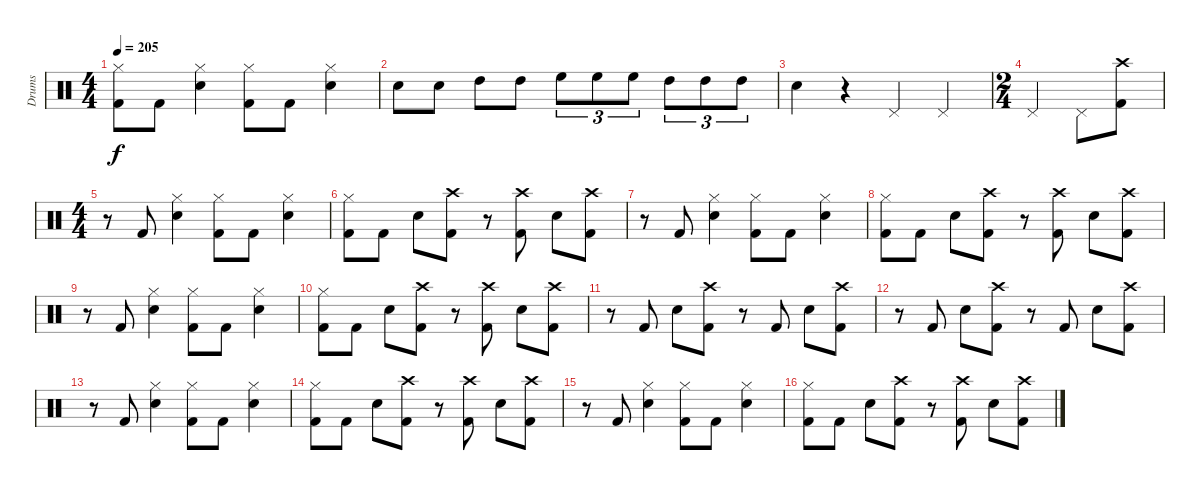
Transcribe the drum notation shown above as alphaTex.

\track ("Drums" "Drums") {instrument percussion}
\staff {score}
\articulation defaults
\ts (4 4)
\tempo 205
\clef neutral
\ks c
("Hi-Hat (closed)" "Kick (hit) 2").8{dy f} "Kick (hit) 2".8 ("Hi-Hat (closed)" "Snare (hit) 2").4 ("Hi-Hat (closed)" "Kick (hit) 2").8 "Kick (hit) 2".8 ("Hi-Hat (closed)" "Snare (hit) 2").4 |
"Snare (hit) 2".8 "Snare (hit) 2".8 "High Tom (hit)".8 "High Tom (hit)".8 "High Floor Tom (hit)".8{tu (3 2)} "High Floor Tom (hit)".8{tu (3 2)} "High Floor Tom (hit)".8{tu (3 2)} "High Tom (hit)".8{tu (3 2)} "High Tom (hit)".8{tu (3 2)} "High Tom (hit)".8{tu (3 2)} |
"Snare (hit) 2".4 r.4 "Pedal Hi-Hat (hit)".4 "Pedal Hi-Hat (hit)".4 |
\ts (2 4)
"Pedal Hi-Hat (hit)".4 "Pedal Hi-Hat (hit)".8 ("Kick (hit) 2" "Crash high (hit)").8 |
\ts (4 4)
r.8 "Kick (hit) 2".8 ("Snare (hit) 2" "Hi-Hat (closed)").4 ("Kick (hit) 2" "Hi-Hat (closed)").8 "Kick (hit) 2".8 ("Hi-Hat (closed)" "Snare (hit) 2").4 |
("Hi-Hat (closed)" "Kick (hit) 2").8 "Kick (hit) 2".8 "Snare (hit) 2".8 ("Kick (hit) 2" "Crash high (hit)").8 r.8 ("Kick (hit) 2" "Crash high (hit)").8 "Snare (hit) 2".8 ("Kick (hit) 2" "Crash high (hit)").8 |
r.8 "Kick (hit) 2".8 ("Snare (hit) 2" "Hi-Hat (closed)").4 ("Kick (hit) 2" "Hi-Hat (closed)").8 "Kick (hit) 2".8 ("Hi-Hat (closed)" "Snare (hit) 2").4 |
("Hi-Hat (closed)" "Kick (hit) 2").8 "Kick (hit) 2".8 "Snare (hit) 2".8 ("Kick (hit) 2" "Crash high (hit)").8 r.8 ("Kick (hit) 2" "Crash high (hit)").8 "Snare (hit) 2".8 ("Kick (hit) 2" "Crash high (hit)").8 |
r.8 "Kick (hit) 2".8 ("Snare (hit) 2" "Hi-Hat (closed)").4 ("Kick (hit) 2" "Hi-Hat (closed)").8 "Kick (hit) 2".8 ("Hi-Hat (closed)" "Snare (hit) 2").4 |
("Hi-Hat (closed)" "Kick (hit) 2").8 "Kick (hit) 2".8 "Snare (hit) 2".8 ("Kick (hit) 2" "Crash high (hit)").8 r.8 ("Kick (hit) 2" "Crash high (hit)").8 "Snare (hit) 2".8 ("Kick (hit) 2" "Crash high (hit)").8 |
r.8 "Kick (hit) 2".8 "Snare (hit) 2".8 ("Kick (hit) 2" "Crash high (hit)").8 r.8 "Kick (hit) 2".8 "Snare (hit) 2".8 ("Kick (hit) 2" "Crash high (hit)").8 |
r.8 "Kick (hit) 2".8 "Snare (hit) 2".8 ("Kick (hit) 2" "Crash high (hit)").8 r.8 "Kick (hit) 2".8 "Snare (hit) 2".8 ("Kick (hit) 2" "Crash high (hit)").8 |
r.8 "Kick (hit) 2".8 ("Snare (hit) 2" "Hi-Hat (closed)").4 ("Kick (hit) 2" "Hi-Hat (closed)").8 "Kick (hit) 2".8 ("Hi-Hat (closed)" "Snare (hit) 2").4 |
("Hi-Hat (closed)" "Kick (hit) 2").8 "Kick (hit) 2".8 "Snare (hit) 2".8 ("Kick (hit) 2" "Crash high (hit)").8 r.8 ("Kick (hit) 2" "Crash high (hit)").8 "Snare (hit) 2".8 ("Kick (hit) 2" "Crash high (hit)").8 |
r.8 "Kick (hit) 2".8 ("Snare (hit) 2" "Hi-Hat (closed)").4 ("Kick (hit) 2" "Hi-Hat (closed)").8 "Kick (hit) 2".8 ("Hi-Hat (closed)" "Snare (hit) 2").4 |
("Hi-Hat (closed)" "Kick (hit) 2").8 "Kick (hit) 2".8 "Snare (hit) 2".8 ("Kick (hit) 2" "Crash high (hit)").8 r.8 ("Kick (hit) 2" "Crash high (hit)").8 "Snare (hit) 2".8 ("Kick (hit) 2" "Crash high (hit)").8
